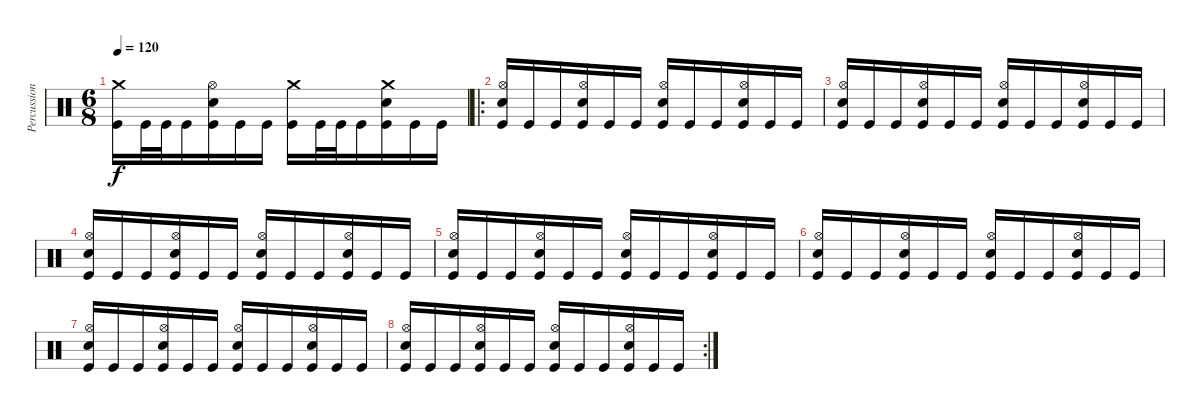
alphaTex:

\track ("Percussion" "Percussion") {instrument percussion}
\staff {score}
\articulation defaults
\ts (6 8)
\tempo 120
\clef neutral
\ks c
("Crash medium (hit)" "Kick (hit)").16{dy f} "Kick (hit)".32 "Kick (hit)".32 "Kick (hit)".16 ("Hi-Hat (open)" "Snare (hit) 2" "Kick (hit)").16 "Kick (hit)".16 "Kick (hit)".16 ("Crash medium (hit)" "Kick (hit)").16 "Kick (hit)".32 "Kick (hit)".32 "Kick (hit)".16 ("Crash medium (hit)" "Snare (hit) 2" "Kick (hit)").16 "Kick (hit)".16 "Kick (hit)".16 |
\ro
("Hi-Hat (open)" "Snare (hit) 2" "Kick (hit)").16 "Kick (hit)".16 "Kick (hit)".16 ("Hi-Hat (open)" "Snare (hit) 2" "Kick (hit)").16 "Kick (hit)".16 "Kick (hit)".16 ("Hi-Hat (open)" "Snare (hit) 2" "Kick (hit)").16 "Kick (hit)".16 "Kick (hit)".16 ("Hi-Hat (open)" "Snare (hit) 2" "Kick (hit)").16 "Kick (hit)".16 "Kick (hit)".16 |
("Hi-Hat (open)" "Snare (hit) 2" "Kick (hit)").16 "Kick (hit)".16 "Kick (hit)".16 ("Hi-Hat (open)" "Snare (hit) 2" "Kick (hit)").16 "Kick (hit)".16 "Kick (hit)".16 ("Hi-Hat (open)" "Snare (hit) 2" "Kick (hit)").16 "Kick (hit)".16 "Kick (hit)".16 ("Hi-Hat (open)" "Snare (hit) 2" "Kick (hit)").16 "Kick (hit)".16 "Kick (hit)".16 |
("Hi-Hat (open)" "Snare (hit) 2" "Kick (hit)").16 "Kick (hit)".16 "Kick (hit)".16 ("Hi-Hat (open)" "Snare (hit) 2" "Kick (hit)").16 "Kick (hit)".16 "Kick (hit)".16 ("Hi-Hat (open)" "Snare (hit) 2" "Kick (hit)").16 "Kick (hit)".16 "Kick (hit)".16 ("Hi-Hat (open)" "Snare (hit) 2" "Kick (hit)").16 "Kick (hit)".16 "Kick (hit)".16 |
("Hi-Hat (open)" "Snare (hit) 2" "Kick (hit)").16 "Kick (hit)".16 "Kick (hit)".16 ("Hi-Hat (open)" "Snare (hit) 2" "Kick (hit)").16 "Kick (hit)".16 "Kick (hit)".16 ("Hi-Hat (open)" "Snare (hit) 2" "Kick (hit)").16 "Kick (hit)".16 "Kick (hit)".16 ("Hi-Hat (open)" "Snare (hit) 2" "Kick (hit)").16 "Kick (hit)".16 "Kick (hit)".16 |
("Hi-Hat (open)" "Snare (hit) 2" "Kick (hit)").16 "Kick (hit)".16 "Kick (hit)".16 ("Hi-Hat (open)" "Snare (hit) 2" "Kick (hit)").16 "Kick (hit)".16 "Kick (hit)".16 ("Hi-Hat (open)" "Snare (hit) 2" "Kick (hit)").16 "Kick (hit)".16 "Kick (hit)".16 ("Hi-Hat (open)" "Snare (hit) 2" "Kick (hit)").16 "Kick (hit)".16 "Kick (hit)".16 |
("Hi-Hat (open)" "Snare (hit) 2" "Kick (hit)").16 "Kick (hit)".16 "Kick (hit)".16 ("Hi-Hat (open)" "Snare (hit) 2" "Kick (hit)").16 "Kick (hit)".16 "Kick (hit)".16 ("Hi-Hat (open)" "Snare (hit) 2" "Kick (hit)").16 "Kick (hit)".16 "Kick (hit)".16 ("Hi-Hat (open)" "Snare (hit) 2" "Kick (hit)").16 "Kick (hit)".16 "Kick (hit)".16 |
\rc 2
("Hi-Hat (open)" "Snare (hit) 2" "Kick (hit)").16 "Kick (hit)".16 "Kick (hit)".16 ("Hi-Hat (open)" "Snare (hit) 2" "Kick (hit)").16 "Kick (hit)".16 "Kick (hit)".16 ("Hi-Hat (open)" "Snare (hit) 2" "Kick (hit)").16 "Kick (hit)".16 "Kick (hit)".16 ("Hi-Hat (open)" "Snare (hit) 2" "Kick (hit)").16 "Kick (hit)".16 "Kick (hit)".16
